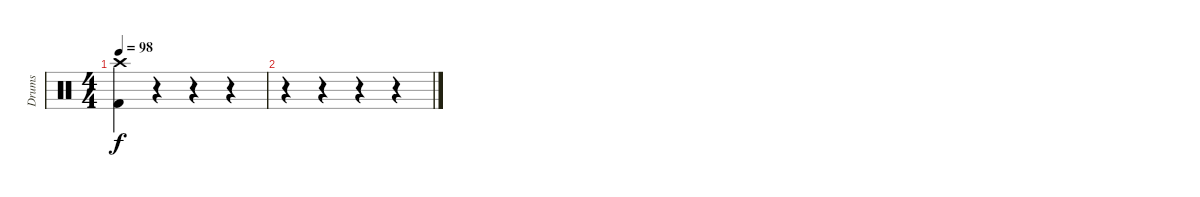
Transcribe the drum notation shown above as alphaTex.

\track ("Drums" "Drums") {instrument percussion}
\staff {score}
\articulation defaults
\ts (4 4)
\tempo 98
\clef neutral
\ks c
("Crash high (hit)" "Kick (hit) 2").4{dy f} r.4 r.4 r.4 |
r.4 r.4 r.4 r.4
